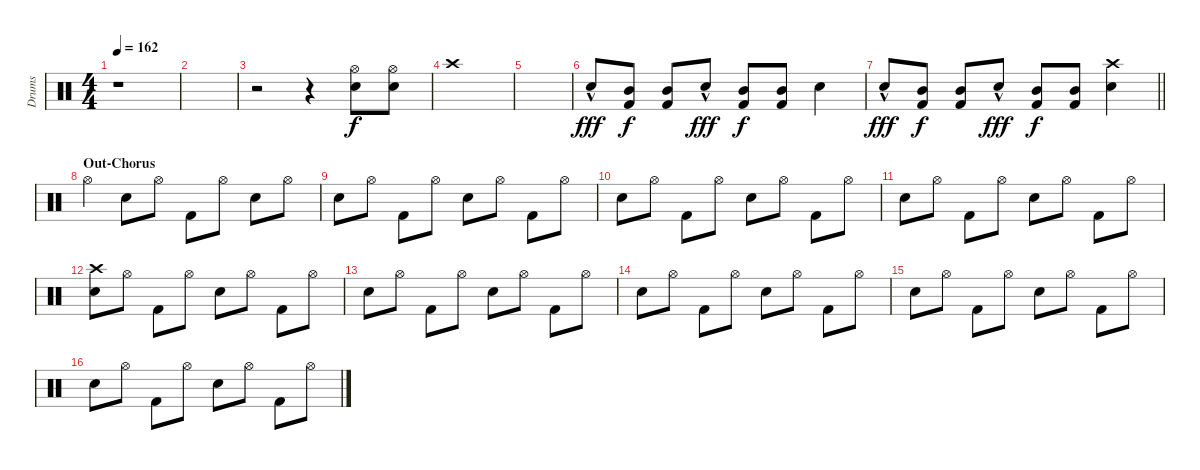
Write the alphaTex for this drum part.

\track ("Drums" "Drums") {instrument percussion}
\staff {score}
\articulation defaults
\ts (4 4)
\tempo 162
\clef neutral
\ks c
r.1{dy f} |
|
r.2 r.4 ("Hi-Hat (open)" "Electric Snare (hit)").8{volume 16} ("Hi-Hat (open)" "Electric Snare (hit)").8 |
"Crash high (hit)".1 |
|
"Electric Snare (hit)"{hac}.8{dy fff} ("Mid Tom (hit)" "Kick (hit) 2").8{dy f} ("Mid Tom (hit)" "Kick (hit) 2").8 "Electric Snare (hit)"{hac}.8{dy fff} ("Mid Tom (hit)" "Kick (hit) 2").8{dy f} ("Mid Tom (hit)" "Kick (hit) 2").8 "Electric Snare (hit)".4 |
\barLineRight lightlight "Electric Snare (hit)"{hac}.8{dy fff}
("Mid Tom (hit)" "Kick (hit) 2").8{dy f} ("Mid Tom (hit)" "Kick (hit) 2").8 "Electric Snare (hit)"{hac}.8{dy fff} ("Mid Tom (hit)" "Kick (hit) 2").8{dy f} ("Mid Tom (hit)" "Kick (hit) 2").8 ("Crash high (hit)" "Electric Snare (hit)").4 |
\section ("" "Out-Chorus")
"Hi-Hat (open)".4 "Electric Snare (hit)".8 "Hi-Hat (open)".8 "Kick (hit) 2".8 "Hi-Hat (open)".8 "Electric Snare (hit)".8 "Hi-Hat (open)".8 |
"Electric Snare (hit)".8 "Hi-Hat (open)".8 "Kick (hit) 2".8 "Hi-Hat (open)".8 "Electric Snare (hit)".8 "Hi-Hat (open)".8 "Kick (hit) 2".8 "Hi-Hat (open)".8 |
"Electric Snare (hit)".8 "Hi-Hat (open)".8 "Kick (hit) 2".8 "Hi-Hat (open)".8 "Electric Snare (hit)".8 "Hi-Hat (open)".8 "Kick (hit) 2".8 "Hi-Hat (open)".8 |
"Electric Snare (hit)".8 "Hi-Hat (open)".8 "Kick (hit) 2".8 "Hi-Hat (open)".8 "Electric Snare (hit)".8 "Hi-Hat (open)".8 "Kick (hit) 2".8 "Hi-Hat (open)".8 |
("Crash high (hit)" "Electric Snare (hit)").8 "Hi-Hat (open)".8 "Kick (hit) 2".8 "Hi-Hat (open)".8 "Electric Snare (hit)".8 "Hi-Hat (open)".8 "Kick (hit) 2".8 "Hi-Hat (open)".8 |
"Electric Snare (hit)".8 "Hi-Hat (open)".8 "Kick (hit) 2".8 "Hi-Hat (open)".8 "Electric Snare (hit)".8 "Hi-Hat (open)".8 "Kick (hit) 2".8 "Hi-Hat (open)".8 |
"Electric Snare (hit)".8 "Hi-Hat (open)".8 "Kick (hit) 2".8 "Hi-Hat (open)".8 "Electric Snare (hit)".8 "Hi-Hat (open)".8 "Kick (hit) 2".8 "Hi-Hat (open)".8 |
"Electric Snare (hit)".8 "Hi-Hat (open)".8 "Kick (hit) 2".8 "Hi-Hat (open)".8 "Electric Snare (hit)".8 "Hi-Hat (open)".8 "Kick (hit) 2".8 "Hi-Hat (open)".8 |
"Electric Snare (hit)".8 "Hi-Hat (open)".8 "Kick (hit) 2".8 "Hi-Hat (open)".8 "Electric Snare (hit)".8 "Hi-Hat (open)".8 "Kick (hit) 2".8 "Hi-Hat (open)".8
